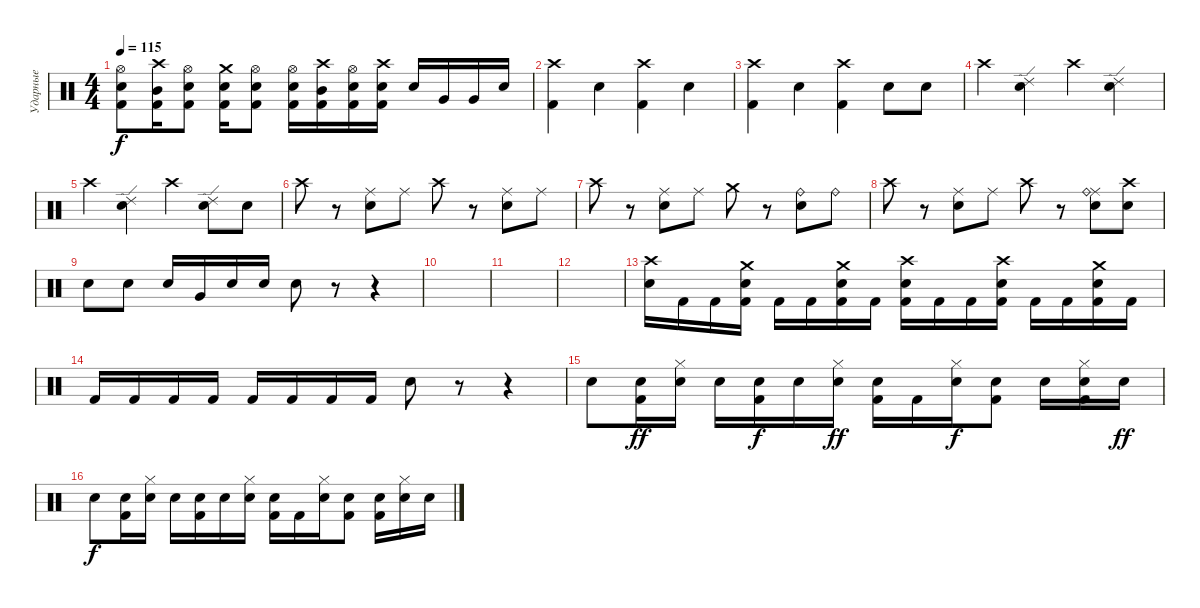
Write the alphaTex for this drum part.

\track ("Ударные" "Ударные") {instrument percussion}
\staff {score}
\articulation defaults
\ts (4 4)
\tempo 115
\clef neutral
\ks c
("Hi-Hat (open)" "Snare (hit) 2" "Kick (hit) 2").8{dy f} ("Crash high (hit)" "Mid Tom (hit)" "Kick (hit) 2").16 ("Hi-Hat (open)" "Snare (hit) 2" "Kick (hit) 2").8 ("Crash medium (hit)" "Snare (hit) 2" "Kick (hit) 2").16 ("Hi-Hat (open)" "Snare (hit) 2" "Kick (hit) 2").8 ("Hi-Hat (open)" "Snare (hit) 2" "Kick (hit) 2").16 ("Crash high (hit)" "Mid Tom (hit)" "Kick (hit) 2").16 ("Hi-Hat (open)" "Snare (hit) 2" "Kick (hit) 2").16 ("Crash high (hit)" "Snare (hit) 2" "Kick (hit) 2").16 "Snare (hit) 2".16 "Very Low Tom (hit)".16 "Very Low Tom (hit)".16 "Electric Snare (hit)".16 |
("Crash high (hit)" "Kick (hit) 2").4 "Snare (hit) 2".4 ("Crash high (hit)" "Kick (hit) 2").4 "Snare (hit) 2".4 |
("Crash high (hit)" "Kick (hit) 2").4 "Snare (hit) 2".4 ("Crash high (hit)" "Kick (hit) 2").4 "Snare (hit) 2".8 "Snare (hit) 2".8 |
"Crash high (hit)".4 ("Ride (edge) 2" "Snare (hit) 2").4 "Crash high (hit)".4 ("Ride (edge) 2" "Snare (hit) 2").4 |
"Crash high (hit)".4 ("Ride (edge) 2" "Snare (hit) 2").4 "Crash high (hit)".4 ("Ride (edge) 2" "Snare (hit) 2").8 "Snare (hit) 2".8 |
"Crash high (hit)".8 r.8 ("Ride (middle)" "Snare (hit) 2").8 "Ride (middle)".8 "Crash high (hit)".8 r.8 ("Ride (middle)" "Snare (hit) 2").8 "Ride (middle)".8 |
"Crash high (hit)".8 r.8 ("Ride (middle)" "Snare (hit) 2").8 "Ride (middle)".8 "Crash medium (hit)".8 r.8 ("Ride (bell)" "Snare (hit) 2").8 "Ride (bell)".8 |
"Crash high (hit)".8 r.8 ("Ride (middle)" "Snare (hit) 2").8 "Ride (middle)".8 "Crash high (hit)".8 r.8 ("Ride (middle)" "Ride (bell)" "Snare (hit) 2").8 ("Crash high (hit)" "Electric Snare (hit)").8 |
"Snare (hit) 2".8 "Electric Snare (hit)".8 "Electric Snare (hit)".16 "Very Low Tom (hit)".16 "Electric Snare (hit)".16 "Snare (hit) 2".16 "Electric Snare (hit)".8 r.8 r.4 |
|
|
|
("Crash high (hit)" "Snare (hit) 2").16 "Kick (hit) 2".16 "Kick (hit) 2".16 ("Crash medium (hit)" "Snare (hit) 2" "Kick (hit) 2").16 "Kick (hit) 2".16 "Kick (hit) 2".16 ("Crash medium (hit)" "Snare (hit) 2" "Kick (hit) 2").16 "Kick (hit) 2".16 ("Crash high (hit)" "Snare (hit) 2" "Kick (hit) 2").16 "Kick (hit) 2".16 "Kick (hit) 2".16 ("Crash high (hit)" "Snare (hit) 2" "Kick (hit) 2").16 "Kick (hit) 2".16 "Kick (hit) 2".16 ("Crash medium (hit)" "Snare (hit) 2" "Kick (hit) 2").16 "Kick (hit) 2".16 |
"Kick (hit) 2".16 "Kick (hit) 2".16 "Kick (hit) 2".16 "Kick (hit) 2".16 "Kick (hit) 2".16 "Kick (hit) 2".16 "Kick (hit) 2".16 "Kick (hit) 2".16 "Snare (hit) 2".8 r.8 r.4 |
"Electric Snare (hit)".8 ("Snare (hit) 2" "Kick (hit) 2").16{dy ff} ("Hi-Hat (closed)" "Electric Snare (hit)").16 "Electric Snare (hit)".16 ("Snare (hit) 2" "Kick (hit) 2").16{dy f} "Electric Snare (hit)".16 ("Hi-Hat (closed)" "Electric Snare (hit)").16{dy ff} ("Snare (hit) 2" "Kick (hit) 2").16 "Kick (hit) 2".16 ("Hi-Hat (closed)" "Electric Snare (hit)").16{dy f} ("Snare (hit) 2" "Kick (hit) 2").8 "Snare (hit) 2".16 ("Hi-Hat (closed)" "Snare (hit) 2" "Kick (hit) 2").16 "Electric Snare (hit)".16{dy ff} |
"Electric Snare (hit)".8{dy f} ("Snare (hit) 2" "Kick (hit) 2").16 ("Hi-Hat (closed)" "Electric Snare (hit)").16 "Electric Snare (hit)".16 ("Snare (hit) 2" "Kick (hit) 2").16 "Electric Snare (hit)".16 ("Hi-Hat (closed)" "Electric Snare (hit)").16 ("Snare (hit) 2" "Kick (hit) 2").16 "Kick (hit) 2".16 ("Hi-Hat (closed)" "Electric Snare (hit)").16 ("Snare (hit) 2" "Kick (hit) 2").8 ("Electric Snare (hit)" "Kick (hit) 2").16 ("Hi-Hat (closed)" "Snare (hit) 2").16 "Electric Snare (hit)".16
